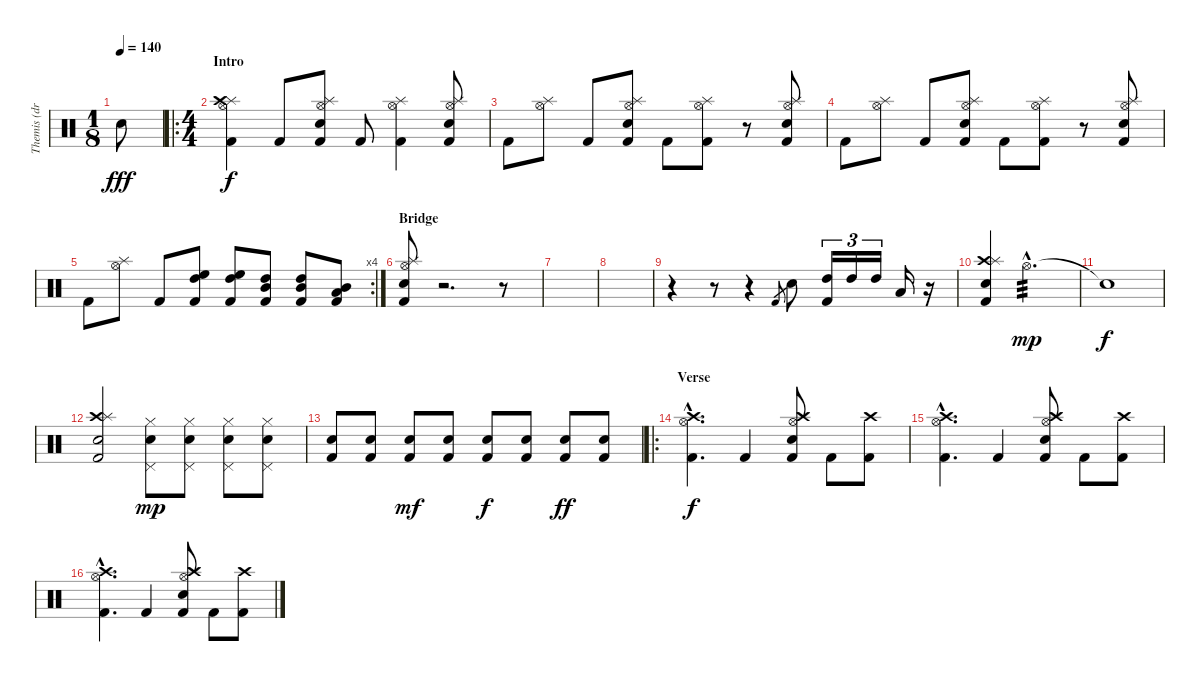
\track ("Themis (drums)" "Themis (dr") {instrument percussion}
\staff {score}
\articulation defaults
\ts (1 8)
\tempo 140
\clef neutral
\ks c "Electric Snare (hit)".8{dy fff}
|
\ro
\ts (4 4)
\section ("" "Intro")
("Hi-Hat (open)" "Splash (hit)" "Crash high (hit)" "Kick (hit) 2").4{dy f} "Kick (hit) 2".8 ("Hi-Hat (open)" "Splash (hit)" "Electric Snare (hit)" "Kick (hit) 2").8 "Kick (hit) 2".8 ("Hi-Hat (open)" "Splash (hit)" "Kick (hit) 2").4 ("Hi-Hat (open)" "Splash (hit)" "Electric Snare (hit)" "Kick (hit) 2").8 |
"Kick (hit) 2".8 ("Hi-Hat (open)" "Splash (hit)").8 "Kick (hit) 2".8 ("Hi-Hat (open)" "Splash (hit)" "Electric Snare (hit)" "Kick (hit) 2").8 "Kick (hit) 2".8 ("Hi-Hat (open)" "Splash (hit)" "Kick (hit) 2").8 r.8 ("Hi-Hat (open)" "Splash (hit)" "Electric Snare (hit)" "Kick (hit) 2").8 |
"Kick (hit) 2".8 ("Hi-Hat (open)" "Splash (hit)").8 "Kick (hit) 2".8 ("Hi-Hat (open)" "Splash (hit)" "Electric Snare (hit)" "Kick (hit) 2").8 "Kick (hit) 2".8 ("Hi-Hat (open)" "Splash (hit)" "Kick (hit) 2").8 r.8 ("Hi-Hat (open)" "Splash (hit)" "Electric Snare (hit)" "Kick (hit) 2").8 |
\rc 4 "Kick (hit) 2".8
("Hi-Hat (open)" "Splash (hit)").8 "Kick (hit) 2".8 ("High Floor Tom (hit)" "High Tom (hit)" "Kick (hit) 2").8 ("High Floor Tom (hit)" "High Tom (hit)" "Kick (hit) 2").8 ("High Tom (hit)" "Mid Tom (hit)" "Kick (hit) 2").8 ("High Tom (hit)" "Mid Tom (hit)" "Kick (hit) 2").8 ("Mid Tom (hit)" "Low Tom (hit)" "Kick (hit) 2").8 |
\section ("" "Bridge")
("Hi-Hat (open)" "Splash (hit)" "Electric Snare (hit)" "Kick (hit) 2").8 r.2{d} r.8 |
|
|
r.4 r.8 r.4 "Kick (hit) 2".8{gr} "Electric Snare (hit)".8 ("High Tom (hit)" "Kick (hit) 2").16{tu (3 2)} "High Tom (hit)".16{tu (3 2)} "High Tom (hit)".16{tu (3 2)} "Low Tom (hit)".16 r.16 |
("Crash high (hit)" "Splash (hit)" "Electric Snare (hit)" "Kick (hit) 2").4 "Hi-Hat (open)"{hac}.2{d tp 3 dy mp} |
"Snare (hit)"{t}.1{dy f} |
("Crash high (hit)" "Splash (hit)" "Electric Snare (hit)" "Kick (hit) 2").2 ("Pedal Hi-Hat (hit)" "Hi-Hat (closed)" "Electric Snare (hit)").8{dy mp} ("Pedal Hi-Hat (hit)" "Hi-Hat (closed)" "Electric Snare (hit)").8 ("Pedal Hi-Hat (hit)" "Hi-Hat (closed)" "Electric Snare (hit)").8 ("Pedal Hi-Hat (hit)" "Hi-Hat (closed)" "Electric Snare (hit)").8 |
("Electric Snare (hit)" "Kick (hit) 2").8 ("Electric Snare (hit)" "Kick (hit) 2").8 ("Electric Snare (hit)" "Kick (hit) 2").8{dy mf} ("Electric Snare (hit)" "Kick (hit) 2").8 ("Electric Snare (hit)" "Kick (hit) 2").8{dy f} ("Electric Snare (hit)" "Kick (hit) 2").8 ("Electric Snare (hit)" "Kick (hit) 2").8{dy ff} ("Electric Snare (hit)" "Kick (hit) 2").8 |
\ro
\section ("" "Verse")
("Crash high (hit)"{hac} "Hi-Hat (open)"{hac} "Kick (hit) 2"{hac}).4{d dy f} "Kick (hit) 2".4 ("Hi-Hat (open)" "Crash high (hit)" "Electric Snare (hit)" "Kick (hit) 2").8 "Kick (hit) 2".8 ("Crash high (hit)" "Kick (hit) 2").8 |
("Crash high (hit)"{hac} "Hi-Hat (open)"{hac} "Kick (hit) 2"{hac}).4{d} "Kick (hit) 2".4 ("Hi-Hat (open)" "Crash high (hit)" "Electric Snare (hit)" "Kick (hit) 2").8 "Kick (hit) 2".8 ("Crash high (hit)" "Kick (hit) 2").8 |
("Crash high (hit)"{hac} "Hi-Hat (open)"{hac} "Kick (hit) 2"{hac}).4{d} "Kick (hit) 2".4 ("Hi-Hat (open)" "Crash high (hit)" "Electric Snare (hit)" "Kick (hit) 2").8 "Kick (hit) 2".8 ("Crash high (hit)" "Kick (hit) 2").8
